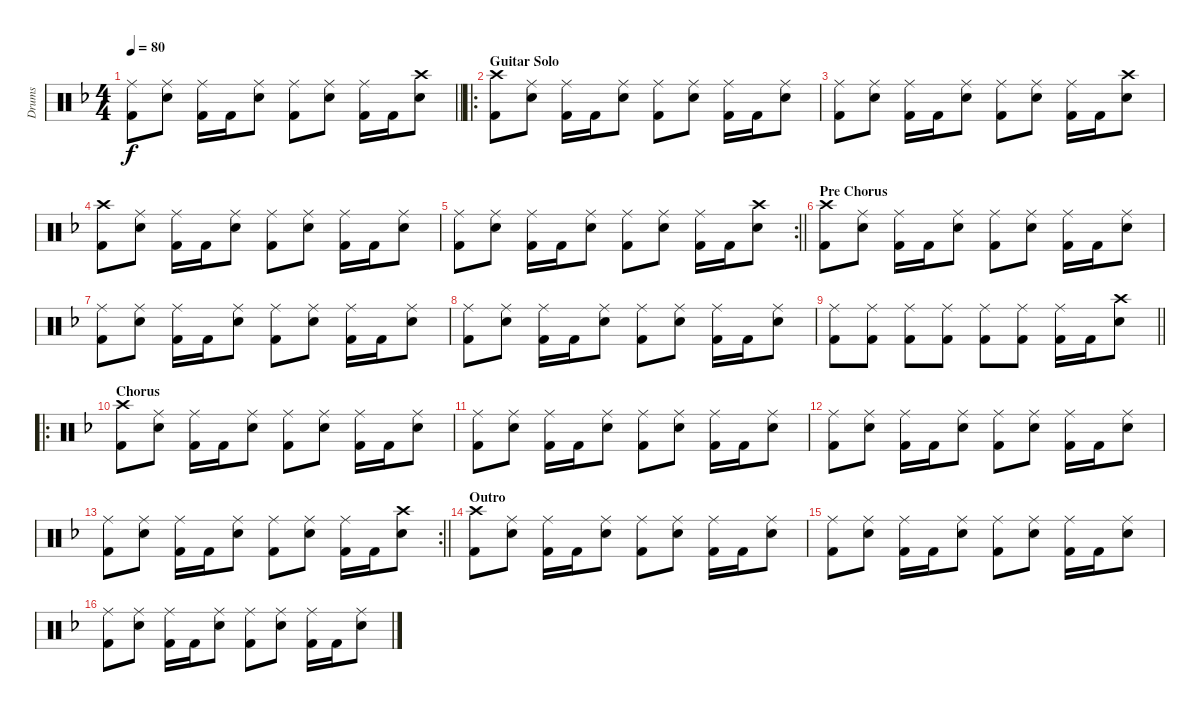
\track ("Drums" "Drums") {instrument percussion}
\staff {score}
\articulation defaults
\ts (4 4)
\tempo 80
\clef neutral
\barLineRight lightlight
\ks f
("Ride (middle)" "Kick (hit) 2").8{dy f} ("Ride (middle)" "Electric Snare (hit)").8 ("Ride (middle)" "Kick (hit) 2").16 "Kick (hit) 2".16 ("Ride (middle)" "Electric Snare (hit)").8 ("Ride (middle)" "Kick (hit) 2").8 ("Ride (middle)" "Electric Snare (hit)").8 ("Ride (middle)" "Kick (hit) 2").16 "Kick (hit) 2".16 ("Crash high (hit)" "Electric Snare (hit)").8 |
\ro
\section ("" "Guitar Solo")
("Crash high (hit)" "Kick (hit) 2").8 ("Ride (middle)" "Electric Snare (hit)").8 ("Ride (middle)" "Kick (hit) 2").16 "Kick (hit) 2".16 ("Ride (middle)" "Electric Snare (hit)").8 ("Ride (middle)" "Kick (hit) 2").8 ("Ride (middle)" "Electric Snare (hit)").8 ("Ride (middle)" "Kick (hit) 2").16 "Kick (hit) 2".16 ("Ride (middle)" "Electric Snare (hit)").8 |
("Ride (middle)" "Kick (hit) 2").8 ("Ride (middle)" "Electric Snare (hit)").8 ("Ride (middle)" "Kick (hit) 2").16 "Kick (hit) 2".16 ("Ride (middle)" "Electric Snare (hit)").8 ("Ride (middle)" "Kick (hit) 2").8 ("Ride (middle)" "Electric Snare (hit)").8 ("Ride (middle)" "Kick (hit) 2").16 "Kick (hit) 2".16 ("Crash high (hit)" "Electric Snare (hit)").8 |
("Crash high (hit)" "Kick (hit) 2").8 ("Ride (middle)" "Electric Snare (hit)").8 ("Ride (middle)" "Kick (hit) 2").16 "Kick (hit) 2".16 ("Ride (middle)" "Electric Snare (hit)").8 ("Ride (middle)" "Kick (hit) 2").8 ("Ride (middle)" "Electric Snare (hit)").8 ("Ride (middle)" "Kick (hit) 2").16 "Kick (hit) 2".16 ("Ride (middle)" "Electric Snare (hit)").8 |
\rc 2
\barLineRight lightlight
("Ride (middle)" "Kick (hit) 2").8 ("Ride (middle)" "Electric Snare (hit)").8 ("Ride (middle)" "Kick (hit) 2").16 "Kick (hit) 2".16 ("Ride (middle)" "Electric Snare (hit)").8 ("Ride (middle)" "Kick (hit) 2").8 ("Ride (middle)" "Electric Snare (hit)").8 ("Ride (middle)" "Kick (hit) 2").16 "Kick (hit) 2".16 ("Crash high (hit)" "Electric Snare (hit)").8 |
\section ("" "Pre Chorus")
("Crash high (hit)" "Kick (hit) 2").8 ("Ride (middle)" "Electric Snare (hit)").8 ("Ride (middle)" "Kick (hit) 2").16 "Kick (hit) 2".16 ("Ride (middle)" "Electric Snare (hit)").8 ("Ride (middle)" "Kick (hit) 2").8 ("Ride (middle)" "Electric Snare (hit)").8 ("Ride (middle)" "Kick (hit) 2").16 "Kick (hit) 2".16 ("Ride (middle)" "Electric Snare (hit)").8 |
("Ride (middle)" "Kick (hit) 2").8 ("Ride (middle)" "Electric Snare (hit)").8 ("Ride (middle)" "Kick (hit) 2").16 "Kick (hit) 2".16 ("Ride (middle)" "Electric Snare (hit)").8 ("Ride (middle)" "Kick (hit) 2").8 ("Ride (middle)" "Electric Snare (hit)").8 ("Ride (middle)" "Kick (hit) 2").16 "Kick (hit) 2".16 ("Ride (middle)" "Electric Snare (hit)").8 |
("Ride (middle)" "Kick (hit) 2").8 ("Ride (middle)" "Electric Snare (hit)").8 ("Ride (middle)" "Kick (hit) 2").16 "Kick (hit) 2".16 ("Ride (middle)" "Electric Snare (hit)").8 ("Ride (middle)" "Kick (hit) 2").8 ("Ride (middle)" "Electric Snare (hit)").8 ("Ride (middle)" "Kick (hit) 2").16 "Kick (hit) 2".16 ("Ride (middle)" "Electric Snare (hit)").8 |
\barLineRight lightlight
("Ride (middle)" "Kick (hit) 2").8 ("Ride (middle)" "Kick (hit) 2").8 ("Ride (middle)" "Kick (hit) 2").8 ("Ride (middle)" "Kick (hit) 2").8 ("Ride (middle)" "Kick (hit) 2").8 ("Ride (middle)" "Kick (hit) 2").8 ("Ride (middle)" "Kick (hit) 2").16 "Kick (hit) 2".16 ("Crash high (hit)" "Electric Snare (hit)").8 |
\ro
\section ("" "Chorus")
("Crash high (hit)" "Kick (hit) 2").8 ("Ride (middle)" "Electric Snare (hit)").8 ("Ride (middle)" "Kick (hit) 2").16 "Kick (hit) 2".16 ("Ride (middle)" "Electric Snare (hit)").8 ("Ride (middle)" "Kick (hit) 2").8 ("Ride (middle)" "Electric Snare (hit)").8 ("Ride (middle)" "Kick (hit) 2").16 "Kick (hit) 2".16 ("Ride (middle)" "Electric Snare (hit)").8 |
("Ride (middle)" "Kick (hit) 2").8 ("Ride (middle)" "Electric Snare (hit)").8 ("Ride (middle)" "Kick (hit) 2").16 "Kick (hit) 2".16 ("Ride (middle)" "Electric Snare (hit)").8 ("Ride (middle)" "Kick (hit) 2").8 ("Ride (middle)" "Electric Snare (hit)").8 ("Ride (middle)" "Kick (hit) 2").16 "Kick (hit) 2".16 ("Ride (middle)" "Electric Snare (hit)").8 |
("Ride (middle)" "Kick (hit) 2").8 ("Ride (middle)" "Electric Snare (hit)").8 ("Ride (middle)" "Kick (hit) 2").16 "Kick (hit) 2".16 ("Ride (middle)" "Electric Snare (hit)").8 ("Ride (middle)" "Kick (hit) 2").8 ("Ride (middle)" "Electric Snare (hit)").8 ("Ride (middle)" "Kick (hit) 2").16 "Kick (hit) 2".16 ("Ride (middle)" "Electric Snare (hit)").8 |
\rc 2
\barLineRight lightlight
("Ride (middle)" "Kick (hit) 2").8 ("Ride (middle)" "Electric Snare (hit)").8 ("Ride (middle)" "Kick (hit) 2").16 "Kick (hit) 2".16 ("Ride (middle)" "Electric Snare (hit)").8 ("Ride (middle)" "Kick (hit) 2").8 ("Ride (middle)" "Electric Snare (hit)").8 ("Ride (middle)" "Kick (hit) 2").16 "Kick (hit) 2".16 ("Crash high (hit)" "Electric Snare (hit)").8 |
\section ("" "Outro")
("Crash high (hit)" "Kick (hit) 2").8 ("Ride (middle)" "Electric Snare (hit)").8 ("Ride (middle)" "Kick (hit) 2").16 "Kick (hit) 2".16 ("Ride (middle)" "Electric Snare (hit)").8 ("Ride (middle)" "Kick (hit) 2").8 ("Ride (middle)" "Electric Snare (hit)").8 ("Ride (middle)" "Kick (hit) 2").16 "Kick (hit) 2".16 ("Ride (middle)" "Electric Snare (hit)").8 |
("Ride (middle)" "Kick (hit) 2").8 ("Ride (middle)" "Electric Snare (hit)").8 ("Ride (middle)" "Kick (hit) 2").16 "Kick (hit) 2".16 ("Ride (middle)" "Electric Snare (hit)").8 ("Ride (middle)" "Kick (hit) 2").8 ("Ride (middle)" "Electric Snare (hit)").8 ("Ride (middle)" "Kick (hit) 2").16 "Kick (hit) 2".16 ("Ride (middle)" "Electric Snare (hit)").8 |
("Ride (middle)" "Kick (hit) 2").8 ("Ride (middle)" "Electric Snare (hit)").8 ("Ride (middle)" "Kick (hit) 2").16 "Kick (hit) 2".16 ("Ride (middle)" "Electric Snare (hit)").8 ("Ride (middle)" "Kick (hit) 2").8 ("Ride (middle)" "Electric Snare (hit)").8 ("Ride (middle)" "Kick (hit) 2").16 "Kick (hit) 2".16 ("Ride (middle)" "Electric Snare (hit)").8
